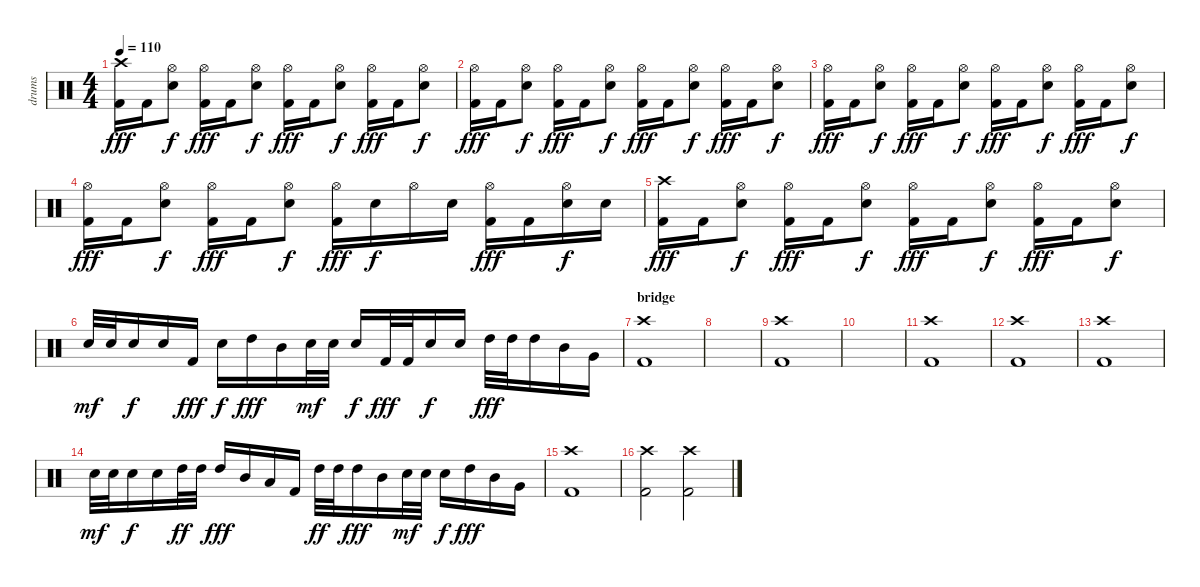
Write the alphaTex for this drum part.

\track ("drums" "drums") {instrument percussion}
\staff {score}
\articulation defaults
\ts (4 4)
\tempo 110
\clef neutral
\ks c
("Crash high (hit)" "Kick (hit) 2").16{dy fff} "Kick (hit) 2".16 ("Hi-Hat (open)" "Snare (hit) 2").8{dy f} ("Hi-Hat (open)" "Kick (hit) 2").16{dy fff} "Kick (hit) 2".16 ("Hi-Hat (open)" "Snare (hit) 2").8{dy f} ("Hi-Hat (open)" "Kick (hit) 2").16{dy fff} "Kick (hit) 2".16 ("Hi-Hat (open)" "Snare (hit) 2").8{dy f} ("Hi-Hat (open)" "Kick (hit) 2").16{dy fff} "Kick (hit) 2".16 ("Hi-Hat (open)" "Snare (hit) 2").8{dy f} |
("Hi-Hat (open)" "Kick (hit) 2").16{dy fff} "Kick (hit) 2".16 ("Hi-Hat (open)" "Snare (hit) 2").8{dy f} ("Hi-Hat (open)" "Kick (hit) 2").16{dy fff} "Kick (hit) 2".16 ("Hi-Hat (open)" "Snare (hit) 2").8{dy f} ("Hi-Hat (open)" "Kick (hit) 2").16{dy fff} "Kick (hit) 2".16 ("Hi-Hat (open)" "Snare (hit) 2").8{dy f} ("Hi-Hat (open)" "Kick (hit) 2").16{dy fff} "Kick (hit) 2".16 ("Hi-Hat (open)" "Snare (hit) 2").8{dy f} |
("Hi-Hat (open)" "Kick (hit) 2").16{dy fff} "Kick (hit) 2".16 ("Hi-Hat (open)" "Snare (hit) 2").8{dy f} ("Hi-Hat (open)" "Kick (hit) 2").16{dy fff} "Kick (hit) 2".16 ("Hi-Hat (open)" "Snare (hit) 2").8{dy f} ("Hi-Hat (open)" "Kick (hit) 2").16{dy fff} "Kick (hit) 2".16 ("Hi-Hat (open)" "Snare (hit) 2").8{dy f} ("Hi-Hat (open)" "Kick (hit) 2").16{dy fff} "Kick (hit) 2".16 ("Hi-Hat (open)" "Snare (hit) 2").8{dy f} |
("Hi-Hat (open)" "Kick (hit) 2").16{dy fff} "Kick (hit) 2".16 ("Hi-Hat (open)" "Snare (hit) 2").8{dy f} ("Hi-Hat (open)" "Kick (hit) 2").16{dy fff} "Kick (hit) 2".16 ("Hi-Hat (open)" "Snare (hit) 2").8{dy f} ("Hi-Hat (open)" "Kick (hit) 2").16{dy fff} "Snare (hit) 2".16{dy f} "Hi-Hat (open)".16 "Snare (hit) 2".16 ("Hi-Hat (open)" "Kick (hit) 2").16{dy fff} "Kick (hit) 2".16 ("Hi-Hat (open)" "Snare (hit) 2").16{dy f} "Snare (hit) 2".16 |
("Crash high (hit)" "Kick (hit) 2").16{dy fff} "Kick (hit) 2".16 ("Hi-Hat (open)" "Snare (hit) 2").8{dy f} ("Hi-Hat (open)" "Kick (hit) 2").16{dy fff} "Kick (hit) 2".16 ("Hi-Hat (open)" "Snare (hit) 2").8{dy f} ("Hi-Hat (open)" "Kick (hit) 2").16{dy fff} "Kick (hit) 2".16 ("Hi-Hat (open)" "Snare (hit) 2").8{dy f} ("Hi-Hat (open)" "Kick (hit) 2").16{dy fff} "Kick (hit) 2".16 ("Hi-Hat (open)" "Snare (hit) 2").8{dy f} |
"Snare (hit) 2".32{dy mf} "Snare (hit) 2".32 "Snare (hit) 2".16{dy f} "Snare (hit) 2".16 "Kick (hit) 2".16{dy fff} "Snare (hit) 2".16{dy f} "High Tom (hit)".16{dy fff} "Mid Tom (hit)".16 "Snare (hit) 2".32{dy mf} "Snare (hit) 2".32 "Snare (hit) 2".16{dy f} "Kick (hit) 2".32{dy fff} "Kick (hit) 2".32 "Snare (hit) 2".16{dy f} "Snare (hit) 2".16 "High Tom (hit)".32{dy fff} "High Tom (hit)".32 "High Tom (hit)".16 "Mid Tom (hit)".16 "Very Low Tom (hit)".16 |
\section ("" "bridge")
("Crash high (hit)" "Kick (hit) 2").1 |
|
("Crash high (hit)" "Kick (hit) 2").1 |
|
("Crash high (hit)" "Kick (hit) 2").1 |
("Crash high (hit)" "Kick (hit) 2").1 |
("Crash high (hit)" "Kick (hit) 2").1 |
"Snare (hit) 2".32{dy mf} "Snare (hit) 2".32 "Snare (hit) 2".16{dy f} "Snare (hit) 2".16 "High Tom (hit)".32{dy ff} "High Tom (hit)".32 "High Tom (hit)".16{dy fff} "Mid Tom (hit)".16 "Low Tom (hit)".16 "Kick (hit) 2".16 "High Tom (hit)".32{dy ff} "High Tom (hit)".32 "High Tom (hit)".16{dy fff} "Mid Tom (hit)".16 "Snare (hit) 2".32{dy mf} "Snare (hit) 2".32 "Snare (hit) 2".16{dy f} "High Tom (hit)".16{dy fff} "Mid Tom (hit)".16 "Very Low Tom (hit)".16 |
("Crash high (hit)" "Kick (hit) 2").1 |
("Crash high (hit)" "Kick (hit) 2").2 ("Crash high (hit)" "Kick (hit) 2").2
